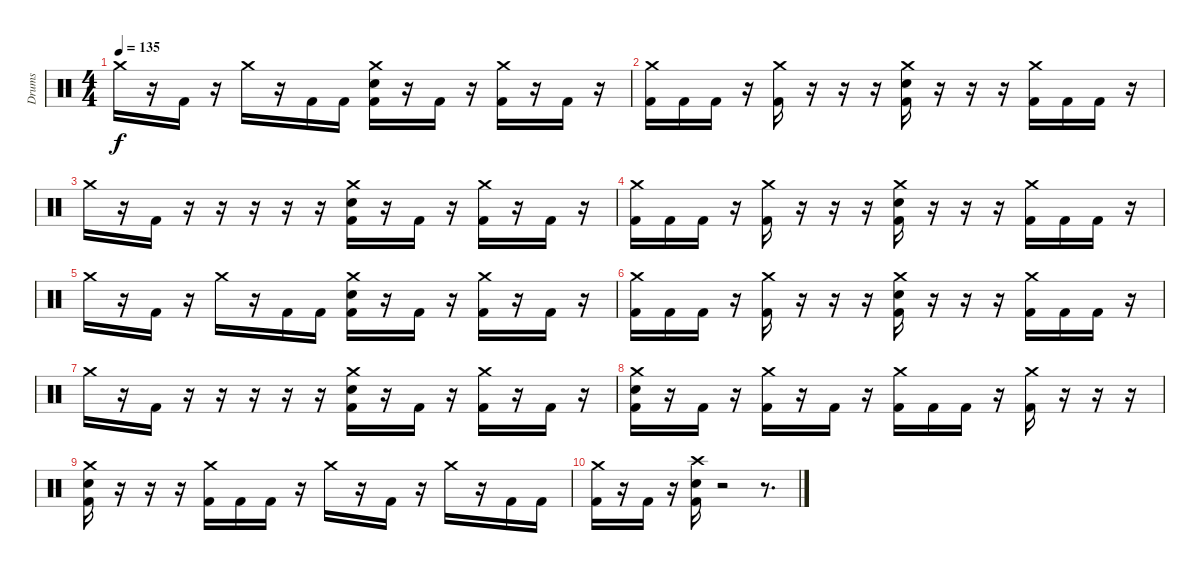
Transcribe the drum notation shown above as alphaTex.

\track ("Drums" "Drums") {instrument percussion}
\staff {score}
\articulation defaults
\ts (4 4)
\tempo 135
\clef neutral
\ks c "Crash medium (hit)".16{dy f}
r.16 "Kick (hit) 2".16 r.16 "Crash medium (hit)".16 r.16 "Kick (hit) 2".16 "Kick (hit) 2".16 ("Crash medium (hit)" "Electric Snare (hit)" "Kick (hit) 2").16 r.16 "Kick (hit) 2".16 r.16 ("Crash medium (hit)" "Kick (hit) 2").16 r.16 "Kick (hit) 2".16 r.16 |
("Crash medium (hit)" "Kick (hit) 2").16 "Kick (hit) 2".16 "Kick (hit) 2".16 r.16 ("Crash medium (hit)" "Kick (hit) 2").16 r.16 r.16 r.16 ("Crash medium (hit)" "Electric Snare (hit)" "Kick (hit) 2").16 r.16 r.16 r.16 ("Crash medium (hit)" "Kick (hit) 2").16 "Kick (hit) 2".16 "Kick (hit) 2".16 r.16 |
"Crash medium (hit)".16 r.16 "Kick (hit) 2".16 r.16 r.16 r.16 r.16 r.16 ("Crash medium (hit)" "Electric Snare (hit)" "Kick (hit) 2").16 r.16 "Kick (hit) 2".16 r.16 ("Crash medium (hit)" "Kick (hit) 2").16 r.16 "Kick (hit) 2".16 r.16 |
("Crash medium (hit)" "Kick (hit) 2").16 "Kick (hit) 2".16 "Kick (hit) 2".16 r.16 ("Crash medium (hit)" "Kick (hit) 2").16 r.16 r.16 r.16 ("Crash medium (hit)" "Electric Snare (hit)" "Kick (hit) 2").16 r.16 r.16 r.16 ("Crash medium (hit)" "Kick (hit) 2").16 "Kick (hit) 2".16 "Kick (hit) 2".16 r.16 |
"Crash medium (hit)".16 r.16 "Kick (hit) 2".16 r.16 "Crash medium (hit)".16 r.16 "Kick (hit) 2".16 "Kick (hit) 2".16 ("Crash medium (hit)" "Electric Snare (hit)" "Kick (hit) 2").16 r.16 "Kick (hit) 2".16 r.16 ("Crash medium (hit)" "Kick (hit) 2").16 r.16 "Kick (hit) 2".16 r.16 |
("Crash medium (hit)" "Kick (hit) 2").16 "Kick (hit) 2".16 "Kick (hit) 2".16 r.16 ("Crash medium (hit)" "Kick (hit) 2").16 r.16 r.16 r.16 ("Crash medium (hit)" "Electric Snare (hit)" "Kick (hit) 2").16 r.16 r.16 r.16 ("Crash medium (hit)" "Kick (hit) 2").16 "Kick (hit) 2".16 "Kick (hit) 2".16 r.16 |
"Crash medium (hit)".16 r.16 "Kick (hit) 2".16 r.16 r.16 r.16 r.16 r.16 ("Crash medium (hit)" "Electric Snare (hit)" "Kick (hit) 2").16 r.16 "Kick (hit) 2".16 r.16 ("Crash medium (hit)" "Kick (hit) 2").16 r.16 "Kick (hit) 2".16 r.16 |
("Crash medium (hit)" "Electric Snare (hit)" "Kick (hit) 2").16 r.16 "Kick (hit) 2".16 r.16 ("Crash medium (hit)" "Kick (hit) 2").16 r.16 "Kick (hit) 2".16 r.16 ("Crash medium (hit)" "Kick (hit) 2").16 "Kick (hit) 2".16 "Kick (hit) 2".16 r.16 ("Crash medium (hit)" "Kick (hit) 2").16 r.16 r.16 r.16 |
("Crash medium (hit)" "Electric Snare (hit)" "Kick (hit) 2").16 r.16 r.16 r.16 ("Crash medium (hit)" "Kick (hit) 2").16 "Kick (hit) 2".16 "Kick (hit) 2".16 r.16 "Crash medium (hit)".16 r.16 "Kick (hit) 2".16 r.16 "Crash medium (hit)".16 r.16 "Kick (hit) 2".16 "Kick (hit) 2".16 |
("Crash medium (hit)" "Kick (hit) 2").16 r.16 "Kick (hit) 2".16 r.16 ("Crash high (hit)" "Electric Snare (hit)" "Kick (hit) 2").16 r.2 r.8{d}
